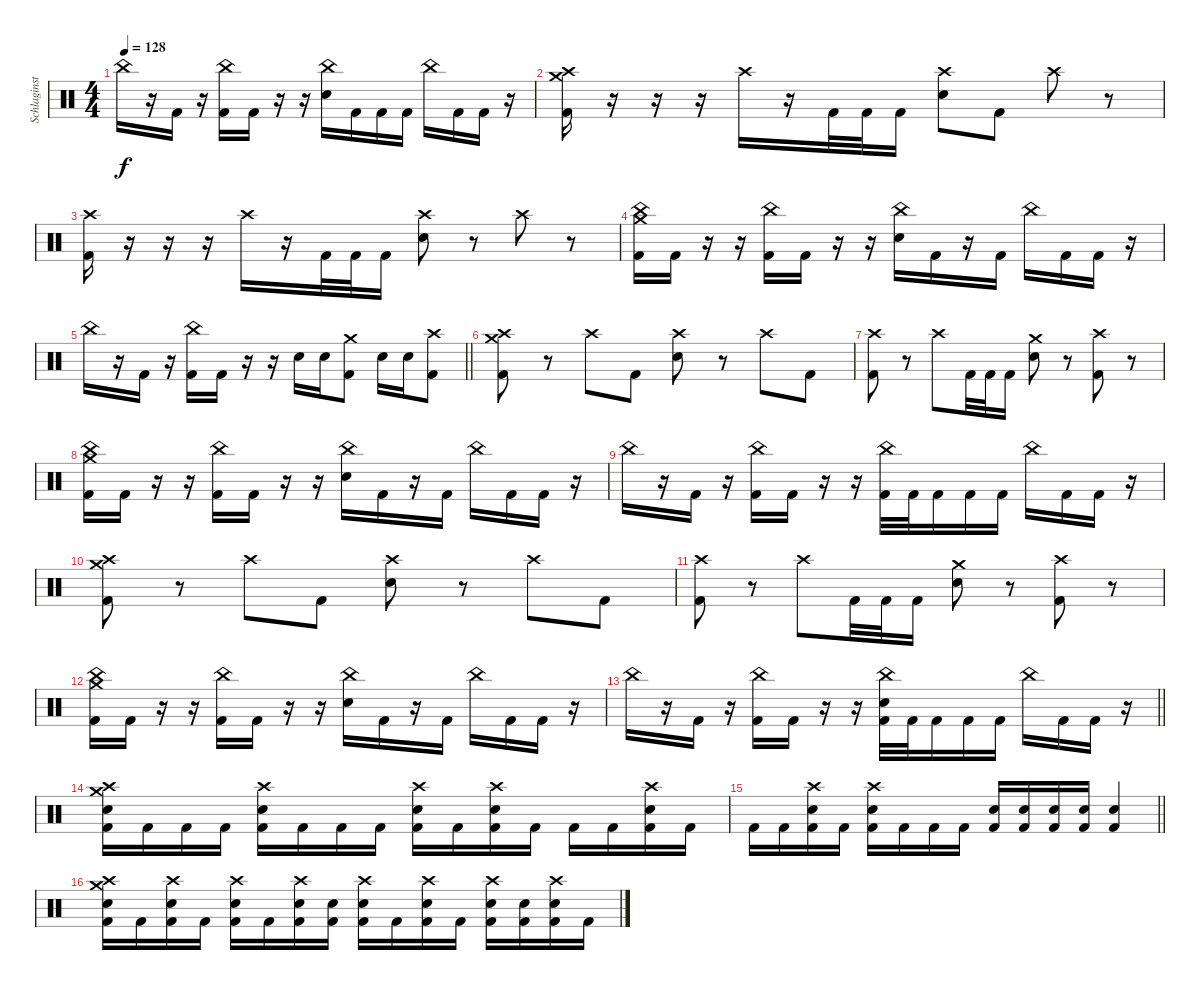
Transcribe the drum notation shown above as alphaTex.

\track ("Schlaginstrumente - Auswahl" "Schlaginst") {instrument percussion}
\staff {score}
\articulation defaults
\ts (4 4)
\tempo 128
\clef neutral
\ks c "China (hit)".16{dy f}
r.16 "Kick (hit) 2".16 r.16 ("China (hit)" "Kick (hit) 2").16 "Kick (hit) 2".16 r.16 r.16 ("China (hit)" "Electric Snare (hit)").16 "Kick (hit) 2".16 "Kick (hit) 2".16 "Kick (hit) 2".16 "China (hit)".16 "Kick (hit) 2".16 "Kick (hit) 2".16 r.16 |
("Crash medium (hit)" "Crash high (hit)" "Kick (hit) 2").16 r.16 r.16 r.16 "Crash high (hit)".16 r.16 "Kick (hit) 2".32 "Kick (hit) 2".32 "Kick (hit) 2".16 ("Crash high (hit)" "Electric Snare (hit)").8 "Kick (hit) 2".8 "Crash high (hit)".8 r.8 |
("Crash high (hit)" "Kick (hit) 2").16 r.16 r.16 r.16 "Crash high (hit)".16 r.16 "Kick (hit) 2".32 "Kick (hit) 2".32 "Kick (hit) 2".16 ("Crash high (hit)" "Electric Snare (hit)").8 r.8 "Crash high (hit)".8 r.8 |
("China (hit)" "Crash medium (hit)" "Kick (hit) 2").16 "Kick (hit) 2".16 r.16 r.16 ("China (hit)" "Kick (hit) 2").16 "Kick (hit) 2".16 r.16 r.16 ("China (hit)" "Electric Snare (hit)").16 "Kick (hit) 2".16 r.16 "Kick (hit) 2".16 "China (hit)".16 "Kick (hit) 2".16 "Kick (hit) 2".16 r.16 |
\barLineRight lightlight "China (hit)".16
r.16 "Kick (hit) 2".16 r.16 ("China (hit)" "Kick (hit) 2").16 "Kick (hit) 2".16 r.16 r.16 "Electric Snare (hit)".16 "Electric Snare (hit)".16 ("Crash medium (hit)" "Kick (hit) 2").8 "Electric Snare (hit)".16 "Electric Snare (hit)".16 ("Crash high (hit)" "Kick (hit) 2").8 |
("Crash medium (hit)" "Crash high (hit)" "Kick (hit) 2").8 r.8 "Crash high (hit)".8 "Kick (hit) 2".8 ("Crash high (hit)" "Electric Snare (hit)").8 r.8 "Crash high (hit)".8 "Kick (hit) 2".8 |
("Crash high (hit)" "Kick (hit) 2").8 r.8 "Crash high (hit)".8 "Kick (hit) 2".32 "Kick (hit) 2".32 "Kick (hit) 2".16 ("Crash medium (hit)" "Electric Snare (hit)").8 r.8 ("Crash high (hit)" "Kick (hit) 2").8 r.8 |
("China (hit)" "Crash medium (hit)" "Kick (hit) 2").16 "Kick (hit) 2".16 r.16 r.16 ("China (hit)" "Kick (hit) 2").16 "Kick (hit) 2".16 r.16 r.16 ("China (hit)" "Electric Snare (hit)").16 "Kick (hit) 2".16 r.16 "Kick (hit) 2".16 "China (hit)".16 "Kick (hit) 2".16 "Kick (hit) 2".16 r.16 |
"China (hit)".16 r.16 "Kick (hit) 2".16 r.16 ("China (hit)" "Kick (hit) 2").16 "Kick (hit) 2".16 r.16 r.16 ("China (hit)" "Kick (hit) 2").32 "Kick (hit) 2".32 "Kick (hit) 2".16 "Kick (hit) 2".16 "Kick (hit) 2".16 "China (hit)".16 "Kick (hit) 2".16 "Kick (hit) 2".16 r.16 |
("Crash medium (hit)" "Crash high (hit)" "Kick (hit) 2").8 r.8 "Crash high (hit)".8 "Kick (hit) 2".8 ("Crash high (hit)" "Electric Snare (hit)").8 r.8 "Crash high (hit)".8 "Kick (hit) 2".8 |
("Crash high (hit)" "Kick (hit) 2").8 r.8 "Crash high (hit)".8 "Kick (hit) 2".32 "Kick (hit) 2".32 "Kick (hit) 2".16 ("Crash medium (hit)" "Electric Snare (hit)").8 r.8 ("Crash high (hit)" "Kick (hit) 2").8 r.8 |
("China (hit)" "Crash medium (hit)" "Kick (hit) 2").16 "Kick (hit) 2".16 r.16 r.16 ("China (hit)" "Kick (hit) 2").16 "Kick (hit) 2".16 r.16 r.16 ("China (hit)" "Electric Snare (hit)").16 "Kick (hit) 2".16 r.16 "Kick (hit) 2".16 "China (hit)".16 "Kick (hit) 2".16 "Kick (hit) 2".16 r.16 |
\barLineRight lightlight "China (hit)".16
r.16 "Kick (hit) 2".16 r.16 ("China (hit)" "Kick (hit) 2").16 "Kick (hit) 2".16 r.16 r.16 ("China (hit)" "Electric Snare (hit)" "Kick (hit) 2").32 "Kick (hit) 2".32 "Kick (hit) 2".16 "Kick (hit) 2".16 "Kick (hit) 2".16 "China (hit)".16 "Kick (hit) 2".16 "Kick (hit) 2".16 r.16 |
("Crash medium (hit)" "Crash high (hit)" "Electric Snare (hit)" "Kick (hit) 2").16 "Kick (hit) 2".16 "Kick (hit) 2".16 "Kick (hit) 2".16 ("Crash high (hit)" "Electric Snare (hit)" "Kick (hit) 2").16 "Kick (hit) 2".16 "Kick (hit) 2".16 "Kick (hit) 2".16 ("Crash high (hit)" "Electric Snare (hit)" "Kick (hit) 2").16 "Kick (hit) 2".16 ("Crash high (hit)" "Electric Snare (hit)" "Kick (hit) 2").16 "Kick (hit) 2".16 "Kick (hit) 2".16 "Kick (hit) 2".16 ("Crash high (hit)" "Electric Snare (hit)" "Kick (hit) 2").16 "Kick (hit) 2".16 |
\barLineRight lightlight "Kick (hit) 2".16 "Kick (hit) 2".16
("Crash high (hit)" "Electric Snare (hit)" "Kick (hit) 2").16 "Kick (hit) 2".16 ("Crash high (hit)" "Electric Snare (hit)" "Kick (hit) 2").16 "Kick (hit) 2".16 "Kick (hit) 2".16 "Kick (hit) 2".16 ("Electric Snare (hit)" "Kick (hit) 2").16 ("Electric Snare (hit)" "Kick (hit) 2").16 ("Electric Snare (hit)" "Kick (hit) 2").16 ("Electric Snare (hit)" "Kick (hit) 2").16 ("Electric Snare (hit)" "Kick (hit) 2").4 |
("Crash medium (hit)" "Crash high (hit)" "Electric Snare (hit)" "Kick (hit) 2").16 "Kick (hit) 2".16 ("Crash high (hit)" "Electric Snare (hit)" "Kick (hit) 2").16 "Kick (hit) 2".16 ("Crash high (hit)" "Electric Snare (hit)" "Kick (hit) 2").16 "Kick (hit) 2".16 ("Crash high (hit)" "Electric Snare (hit)" "Kick (hit) 2").16 ("Electric Snare (hit)" "Kick (hit) 2").16 ("Crash high (hit)" "Electric Snare (hit)" "Kick (hit) 2").16 "Kick (hit) 2".16 ("Crash high (hit)" "Electric Snare (hit)" "Kick (hit) 2").16 "Kick (hit) 2".16 ("Crash high (hit)" "Electric Snare (hit)" "Kick (hit) 2").16 ("Electric Snare (hit)" "Kick (hit) 2").16 ("Crash high (hit)" "Electric Snare (hit)" "Kick (hit) 2").16 "Kick (hit) 2".16
